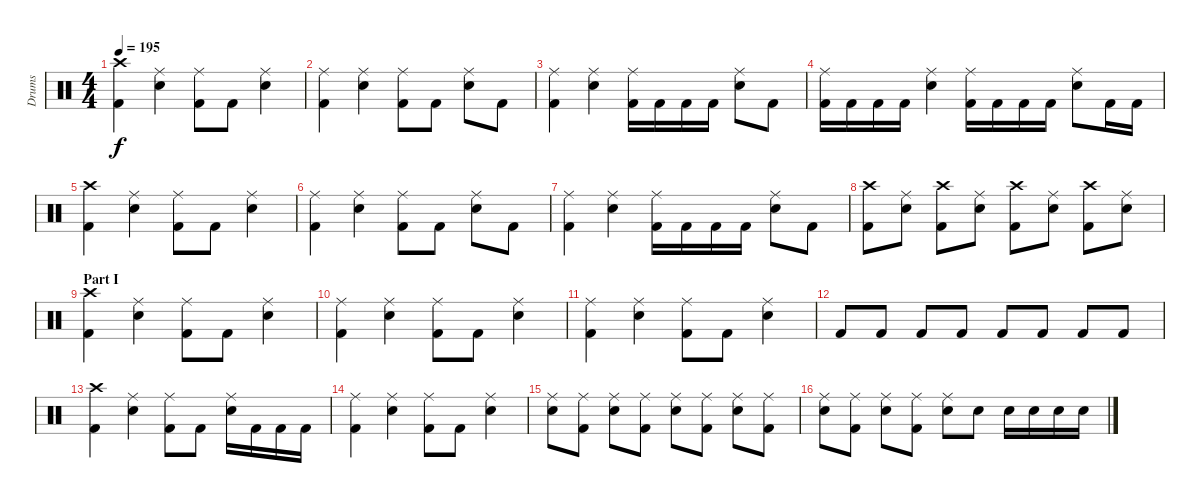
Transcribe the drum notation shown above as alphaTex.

\track ("Drums" "Drums") {instrument percussion}
\staff {score}
\articulation defaults
\ts (4 4)
\tempo 195
\clef neutral
\ks c
("Crash high (hit)" "Kick (hit) 2").4{dy f} ("Ride (middle)" "Snare (hit) 2").4 ("Ride (middle)" "Kick (hit) 2").8 "Kick (hit) 2".8 ("Ride (middle)" "Snare (hit) 2").4 |
("Ride (middle)" "Kick (hit) 2").4 ("Ride (middle)" "Snare (hit) 2").4 ("Ride (middle)" "Kick (hit) 2").8 "Kick (hit) 2".8 ("Ride (middle)" "Snare (hit) 2").8 "Kick (hit) 2".8 |
("Ride (middle)" "Kick (hit) 2").4 ("Ride (middle)" "Snare (hit) 2").4 ("Ride (middle)" "Kick (hit) 2").16 "Kick (hit) 2".16 "Kick (hit) 2".16 "Kick (hit) 2".16 ("Ride (middle)" "Snare (hit) 2").8 "Kick (hit) 2".8 |
("Ride (middle)" "Kick (hit) 2").16 "Kick (hit) 2".16 "Kick (hit) 2".16 "Kick (hit) 2".16 ("Ride (middle)" "Snare (hit) 2").4 ("Ride (middle)" "Kick (hit) 2").16 "Kick (hit) 2".16 "Kick (hit) 2".16 "Kick (hit) 2".16 ("Ride (middle)" "Snare (hit) 2").8 "Kick (hit) 2".16 "Kick (hit) 2".16 |
("Crash high (hit)" "Kick (hit) 2").4 ("Ride (middle)" "Snare (hit) 2").4 ("Ride (middle)" "Kick (hit) 2").8 "Kick (hit) 2".8 ("Ride (middle)" "Snare (hit) 2").4 |
("Ride (middle)" "Kick (hit) 2").4 ("Ride (middle)" "Snare (hit) 2").4 ("Ride (middle)" "Kick (hit) 2").8 "Kick (hit) 2".8 ("Ride (middle)" "Snare (hit) 2").8 "Kick (hit) 2".8 |
("Ride (middle)" "Kick (hit) 2").4 ("Ride (middle)" "Snare (hit) 2").4 ("Ride (middle)" "Kick (hit) 2").16 "Kick (hit) 2".16 "Kick (hit) 2".16 "Kick (hit) 2".16 ("Ride (middle)" "Snare (hit) 2").8 "Kick (hit) 2".8 |
("Crash high (hit)" "Kick (hit) 2").8 ("Ride (middle)" "Snare (hit) 2").8 ("Crash high (hit)" "Kick (hit) 2").8 ("Ride (middle)" "Snare (hit) 2").8 ("Crash high (hit)" "Kick (hit) 2").8 ("Ride (middle)" "Snare (hit) 2").8 ("Crash high (hit)" "Kick (hit) 2").8 ("Ride (middle)" "Snare (hit) 2").8 |
\section ("" "Part I")
("Crash high (hit)" "Kick (hit) 2").4 ("Ride (middle)" "Snare (hit) 2").4 ("Ride (middle)" "Kick (hit) 2").8 "Kick (hit) 2".8 ("Ride (middle)" "Snare (hit) 2").4 |
("Ride (middle)" "Kick (hit) 2").4 ("Ride (middle)" "Snare (hit) 2").4 ("Ride (middle)" "Kick (hit) 2").8 "Kick (hit) 2".8 ("Ride (middle)" "Snare (hit) 2").4 |
("Ride (middle)" "Kick (hit) 2").4 ("Ride (middle)" "Snare (hit) 2").4 ("Ride (middle)" "Kick (hit) 2").8 "Kick (hit) 2".8 ("Ride (middle)" "Snare (hit) 2").4 |
"Kick (hit) 2".8 "Kick (hit) 2".8 "Kick (hit) 2".8 "Kick (hit) 2".8 "Kick (hit) 2".8 "Kick (hit) 2".8 "Kick (hit) 2".8 "Kick (hit) 2".8 |
("Crash high (hit)" "Kick (hit) 2").4 ("Ride (middle)" "Snare (hit) 2").4 ("Ride (middle)" "Kick (hit) 2").8 "Kick (hit) 2".8 ("Ride (middle)" "Snare (hit) 2").16 "Kick (hit) 2".16 "Kick (hit) 2".16 "Kick (hit) 2".16 |
("Ride (middle)" "Kick (hit) 2").4 ("Ride (middle)" "Snare (hit) 2").4 ("Ride (middle)" "Kick (hit) 2").8 "Kick (hit) 2".8 ("Ride (middle)" "Snare (hit) 2").4 |
("Ride (middle)" "Snare (hit) 2").8 ("Ride (middle)" "Kick (hit) 2").8 ("Ride (middle)" "Snare (hit) 2").8 ("Ride (middle)" "Kick (hit) 2").8 ("Ride (middle)" "Snare (hit) 2").8 ("Ride (middle)" "Kick (hit) 2").8 ("Ride (middle)" "Snare (hit) 2").8 ("Ride (middle)" "Kick (hit) 2").8 |
("Ride (middle)" "Snare (hit) 2").8 ("Ride (middle)" "Kick (hit) 2").8 ("Ride (middle)" "Snare (hit) 2").8 ("Ride (middle)" "Kick (hit) 2").8 ("Ride (middle)" "Snare (hit) 2").8 "Snare (hit) 2".8 "Snare (hit) 2".16 "Snare (hit) 2".16 "Snare (hit) 2".16 "Snare (hit) 2".16
